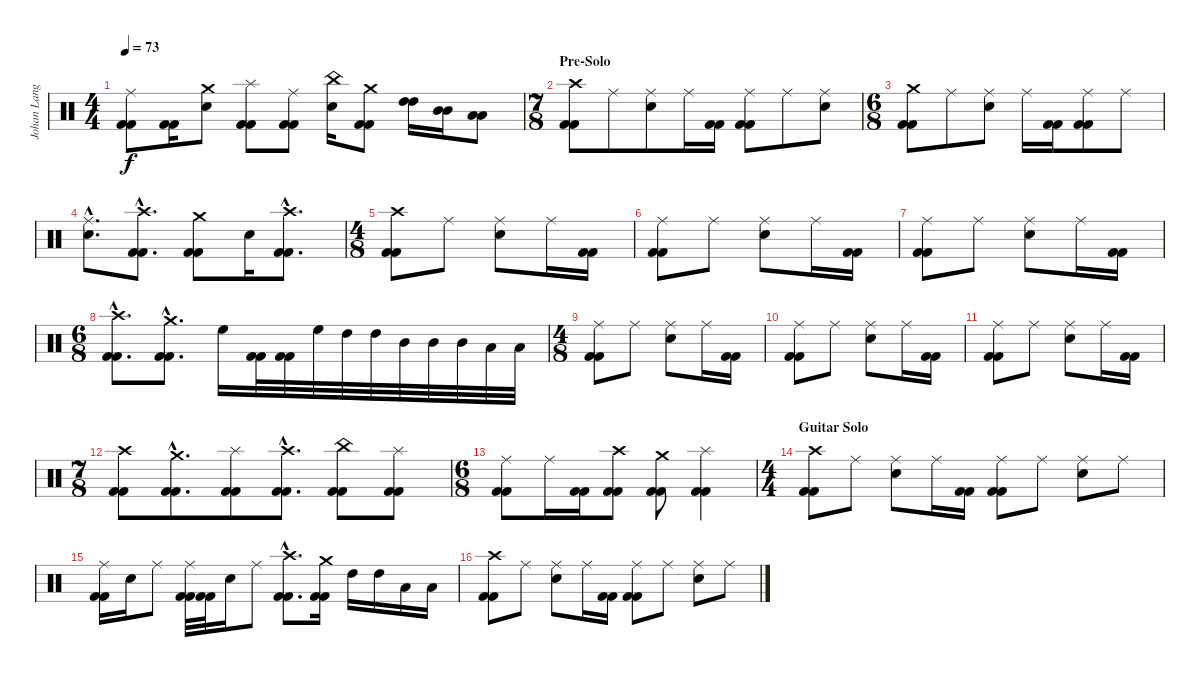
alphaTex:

\track ("Johan Langell" "Johan Lang") {instrument percussion}
\staff {score}
\articulation defaults
\ts (4 4)
\tempo 73
\clef neutral
\ks c
("Ride (middle)" "Kick (hit) 2" "Kick (hit) 2").8{dy f} ("Kick (hit) 2" "Kick (hit) 2").16 ("Crash medium (hit)" "Snare (hit) 2").8 ("Splash (hit)" "Kick (hit) 2" "Kick (hit) 2").8 ("Ride (middle)" "Kick (hit) 2" "Kick (hit) 2").8 ("China (hit)" "Snare (hit) 2").16 ("Crash medium (hit)" "Kick (hit) 2" "Kick (hit) 2").8 ("High Tom (hit)" "High Tom (hit)").16 ("Mid Tom (hit)" "Mid Tom (hit)").16 ("Low Tom (hit)" "Low Tom (hit)").8 |
\ts (7 8)
\section ("" "Pre-Solo")
("Crash high (hit)" "Kick (hit) 2" "Kick (hit) 2").8 "Ride (middle)".8 ("Ride (middle)" "Snare (hit) 2").8 "Ride (middle)".16 ("Kick (hit) 2" "Kick (hit) 2").16 ("Ride (middle)" "Kick (hit) 2" "Kick (hit) 2").8 "Ride (middle)".8 ("Ride (middle)" "Snare (hit) 2").8 |
\ts (6 8)
("Crash medium (hit)" "Kick (hit) 2" "Kick (hit) 2").8 "Ride (middle)".8 ("Ride (middle)" "Snare (hit) 2").8 "Ride (middle)".16 ("Kick (hit) 2" "Kick (hit) 2").16 ("Ride (middle)" "Kick (hit) 2" "Kick (hit) 2").8 "Ride (middle)".8 |
("Ride (middle)"{hac} "Snare (hit) 2"{hac}).8{d} ("Crash high (hit)"{hac} "Kick (hit) 2"{hac} "Kick (hit) 2"{hac}).8{d} ("Crash medium (hit)" "Kick (hit) 2" "Kick (hit) 2").8 "Snare (hit) 2".16 ("Crash high (hit)"{hac} "Kick (hit) 2"{hac} "Kick (hit) 2"{hac}).8{d} |
\ts (4 8)
("Crash high (hit)" "Kick (hit) 2" "Kick (hit) 2").8 "Ride (middle)".8 ("Ride (middle)" "Snare (hit) 2").8 "Ride (middle)".16 ("Kick (hit) 2" "Kick (hit) 2").16 |
("Ride (middle)" "Kick (hit) 2" "Kick (hit) 2").8 "Ride (middle)".8 ("Ride (middle)" "Snare (hit) 2").8 "Ride (middle)".16 ("Kick (hit) 2" "Kick (hit) 2").16 |
("Ride (middle)" "Kick (hit) 2" "Kick (hit) 2").8 "Ride (middle)".8 ("Ride (middle)" "Snare (hit) 2").8 "Ride (middle)".16 ("Kick (hit) 2" "Kick (hit) 2").16 |
\ts (6 8)
("Crash high (hit)"{hac} "Kick (hit) 2"{hac} "Kick (hit) 2"{hac}).8{d} ("Crash medium (hit)"{hac} "Kick (hit) 2"{hac} "Kick (hit) 2"{hac}).8{d} "High Floor Tom (hit)".16 ("Kick (hit) 2" "Kick (hit) 2").32 ("Kick (hit) 2" "Kick (hit) 2").32 "High Floor Tom (hit)".32 "High Tom (hit)".32 "High Tom (hit)".32 "Mid Tom (hit)".32 "Mid Tom (hit)".32 "Mid Tom (hit)".32 "Low Tom (hit)".32 "Low Tom (hit)".32 |
\ts (4 8)
("Ride (middle)" "Kick (hit) 2" "Kick (hit) 2").8 "Ride (middle)".8 ("Ride (middle)" "Snare (hit) 2").8 "Ride (middle)".16 ("Kick (hit) 2" "Kick (hit) 2").16 |
("Ride (middle)" "Kick (hit) 2" "Kick (hit) 2").8 "Ride (middle)".8 ("Ride (middle)" "Snare (hit) 2").8 "Ride (middle)".16 ("Kick (hit) 2" "Kick (hit) 2").16 |
("Ride (middle)" "Kick (hit) 2" "Kick (hit) 2").8 "Ride (middle)".8 ("Ride (middle)" "Snare (hit) 2").8 "Ride (middle)".16 ("Kick (hit) 2" "Kick (hit) 2").16 |
\ts (7 8)
("Crash high (hit)" "Kick (hit) 2" "Kick (hit) 2").8 ("Crash medium (hit)"{hac} "Kick (hit) 2"{hac} "Kick (hit) 2"{hac}).8{d} ("Splash (hit)" "Kick (hit) 2" "Kick (hit) 2").8 ("Crash high (hit)"{hac} "Kick (hit) 2"{hac} "Kick (hit) 2"{hac}).8{d} ("China (hit)" "Kick (hit) 2" "Kick (hit) 2").8 ("Splash (hit)" "Kick (hit) 2" "Kick (hit) 2").8 |
\ts (6 8)
("Ride (middle)" "Kick (hit) 2" "Kick (hit) 2").8 "Ride (middle)".16 ("Kick (hit) 2" "Kick (hit) 2").16 ("Crash high (hit)" "Kick (hit) 2" "Kick (hit) 2").8 ("Crash medium (hit)" "Kick (hit) 2" "Kick (hit) 2").8 ("Splash (hit)" "Kick (hit) 2" "Kick (hit) 2").4 |
\ts (4 4)
\section ("" "Guitar Solo")
("Crash high (hit)" "Kick (hit) 2" "Kick (hit) 2").8 "Ride (middle)".8 ("Ride (middle)" "Snare (hit) 2").8 "Ride (middle)".16 ("Kick (hit) 2" "Kick (hit) 2").16 ("Ride (middle)" "Kick (hit) 2" "Kick (hit) 2").8 "Ride (middle)".8 ("Ride (middle)" "Snare (hit) 2").8 "Ride (middle)".8 |
("Ride (middle)" "Kick (hit) 2" "Kick (hit) 2").16 "Snare (hit) 2".16 "Ride (middle)".8 ("Ride (middle)" "Kick (hit) 2" "Kick (hit) 2").32 ("Kick (hit) 2" "Kick (hit) 2").32 "Snare (hit) 2".16 "Ride (middle)".8 ("Crash high (hit)"{hac} "Kick (hit) 2"{hac} "Kick (hit) 2"{hac}).8{d} ("Crash medium (hit)" "Kick (hit) 2" "Kick (hit) 2").16 "High Tom (hit)".16 "High Tom (hit)".16 "Low Tom (hit)".16 "Low Tom (hit)".16 |
("Crash high (hit)" "Kick (hit) 2" "Kick (hit) 2").8 "Ride (middle)".8 ("Ride (middle)" "Snare (hit) 2").8 "Ride (middle)".16 ("Kick (hit) 2" "Kick (hit) 2").16 ("Ride (middle)" "Kick (hit) 2" "Kick (hit) 2").8 "Ride (middle)".8 ("Ride (middle)" "Snare (hit) 2").8 "Ride (middle)".8
